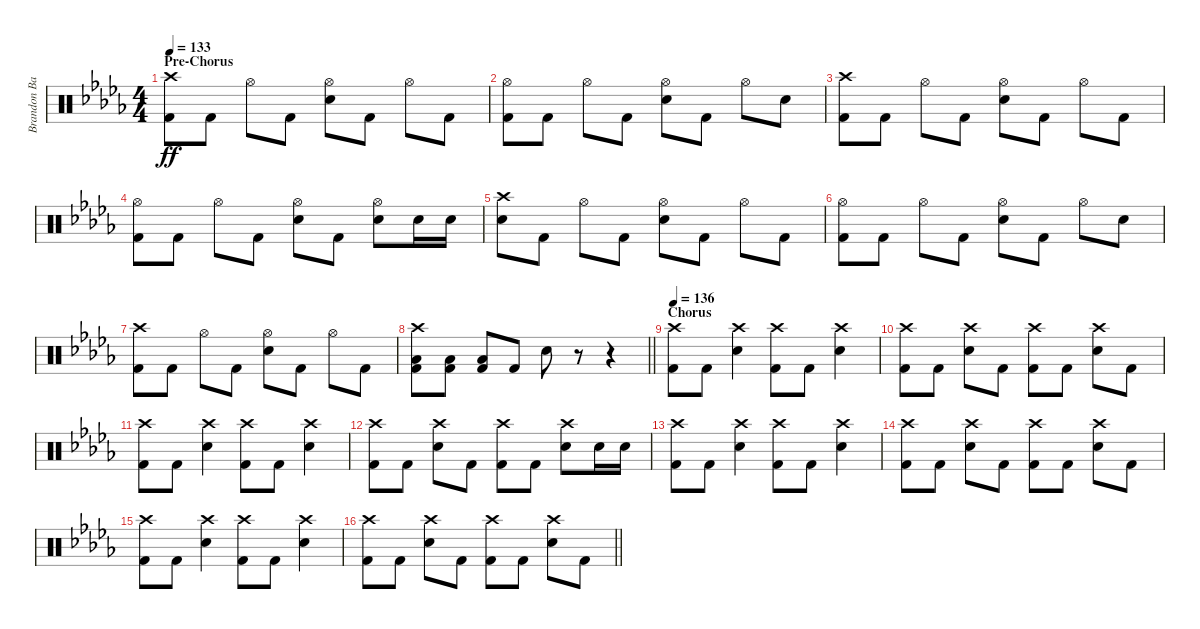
\track ("Brandon Barnes - Drums" "Brandon Ba") {instrument percussion}
\staff {score}
\articulation defaults
\ts (4 4)
\section ("" "Pre-Chorus")
\tempo 133
\clef neutral
\ks db
("Crash high (hit)" "Kick (hit) 2").8{dy ff} "Kick (hit) 2".8 "Hi-Hat (open)".8 "Kick (hit) 2".8 ("Snare (hit) 2" "Hi-Hat (open)").8 "Kick (hit) 2".8 "Hi-Hat (open)".8 "Kick (hit) 2".8 |
("Hi-Hat (open)" "Kick (hit) 2").8 "Kick (hit) 2".8 "Hi-Hat (open)".8 "Kick (hit) 2".8 ("Snare (hit) 2" "Hi-Hat (open)").8 "Kick (hit) 2".8 "Hi-Hat (open)".8 "Snare (hit) 2".8 |
("Crash high (hit)" "Kick (hit) 2").8 "Kick (hit) 2".8 "Hi-Hat (open)".8 "Kick (hit) 2".8 ("Snare (hit) 2" "Hi-Hat (open)").8 "Kick (hit) 2".8 "Hi-Hat (open)".8 "Kick (hit) 2".8 |
("Hi-Hat (open)" "Kick (hit) 2").8 "Kick (hit) 2".8 "Hi-Hat (open)".8 "Kick (hit) 2".8 ("Snare (hit) 2" "Hi-Hat (open)").8 "Kick (hit) 2".8 ("Snare (hit) 2" "Hi-Hat (open)").8 "Snare (hit) 2".16 "Snare (hit) 2".16 |
("Crash high (hit)" "Snare (hit) 2").8 "Kick (hit) 2".8 "Hi-Hat (open)".8 "Kick (hit) 2".8 ("Snare (hit) 2" "Hi-Hat (open)").8 "Kick (hit) 2".8 "Hi-Hat (open)".8 "Kick (hit) 2".8 |
("Hi-Hat (open)" "Kick (hit) 2").8 "Kick (hit) 2".8 "Hi-Hat (open)".8 "Kick (hit) 2".8 ("Snare (hit) 2" "Hi-Hat (open)").8 "Kick (hit) 2".8 "Hi-Hat (open)".8 "Snare (hit) 2".8 |
("Crash high (hit)" "Kick (hit) 2").8 "Kick (hit) 2".8 "Hi-Hat (open)".8 "Kick (hit) 2".8 ("Snare (hit) 2" "Hi-Hat (open)").8 "Kick (hit) 2".8 "Hi-Hat (open)".8 "Kick (hit) 2".8 |
\barLineRight lightlight
("Low Floor Tom (hit)" "Kick (hit) 2" "Crash high (hit)").8 ("Low Floor Tom (hit)" "Kick (hit) 2").8 ("Low Floor Tom (hit)" "Kick (hit) 2").8 "Kick (hit) 2".8 "Snare (hit) 2".8 r.8 r.4 |
\section ("" "Chorus")
\tempo 136
("Crash high (hit)" "Kick (hit) 2").8 "Kick (hit) 2".8 ("Snare (hit) 2" "Crash high (hit)").4 ("Kick (hit) 2" "Crash high (hit)").8 "Kick (hit) 2".8 ("Snare (hit) 2" "Crash high (hit)").4 |
("Kick (hit) 2" "Crash high (hit)").8 "Kick (hit) 2".8 ("Snare (hit) 2" "Crash high (hit)").8 "Kick (hit) 2".8 ("Kick (hit) 2" "Crash high (hit)").8 "Kick (hit) 2".8 ("Snare (hit) 2" "Crash high (hit)").8 "Kick (hit) 2".8 |
("Kick (hit) 2" "Crash high (hit)").8 "Kick (hit) 2".8 ("Snare (hit) 2" "Crash high (hit)").4 ("Kick (hit) 2" "Crash high (hit)").8 "Kick (hit) 2".8 ("Snare (hit) 2" "Crash high (hit)").4 |
("Kick (hit) 2" "Crash high (hit)").8 "Kick (hit) 2".8 ("Snare (hit) 2" "Crash high (hit)").8 "Kick (hit) 2".8 ("Kick (hit) 2" "Crash high (hit)").8 "Kick (hit) 2".8 ("Snare (hit) 2" "Crash high (hit)").8 "Snare (hit) 2".16 "Snare (hit) 2".16 |
("Crash high (hit)" "Kick (hit) 2").8 "Kick (hit) 2".8 ("Snare (hit) 2" "Crash high (hit)").4 ("Kick (hit) 2" "Crash high (hit)").8 "Kick (hit) 2".8 ("Snare (hit) 2" "Crash high (hit)").4 |
("Kick (hit) 2" "Crash high (hit)").8 "Kick (hit) 2".8 ("Snare (hit) 2" "Crash high (hit)").8 "Kick (hit) 2".8 ("Kick (hit) 2" "Crash high (hit)").8 "Kick (hit) 2".8 ("Snare (hit) 2" "Crash high (hit)").8 "Kick (hit) 2".8 |
("Kick (hit) 2" "Crash high (hit)").8 "Kick (hit) 2".8 ("Snare (hit) 2" "Crash high (hit)").4 ("Kick (hit) 2" "Crash high (hit)").8 "Kick (hit) 2".8 ("Snare (hit) 2" "Crash high (hit)").4 |
\barLineRight lightlight
("Kick (hit) 2" "Crash high (hit)").8 "Kick (hit) 2".8 ("Snare (hit) 2" "Crash high (hit)").8 "Kick (hit) 2".8 ("Kick (hit) 2" "Crash high (hit)").8 "Kick (hit) 2".8 ("Snare (hit) 2" "Crash high (hit)").8 "Kick (hit) 2".8
